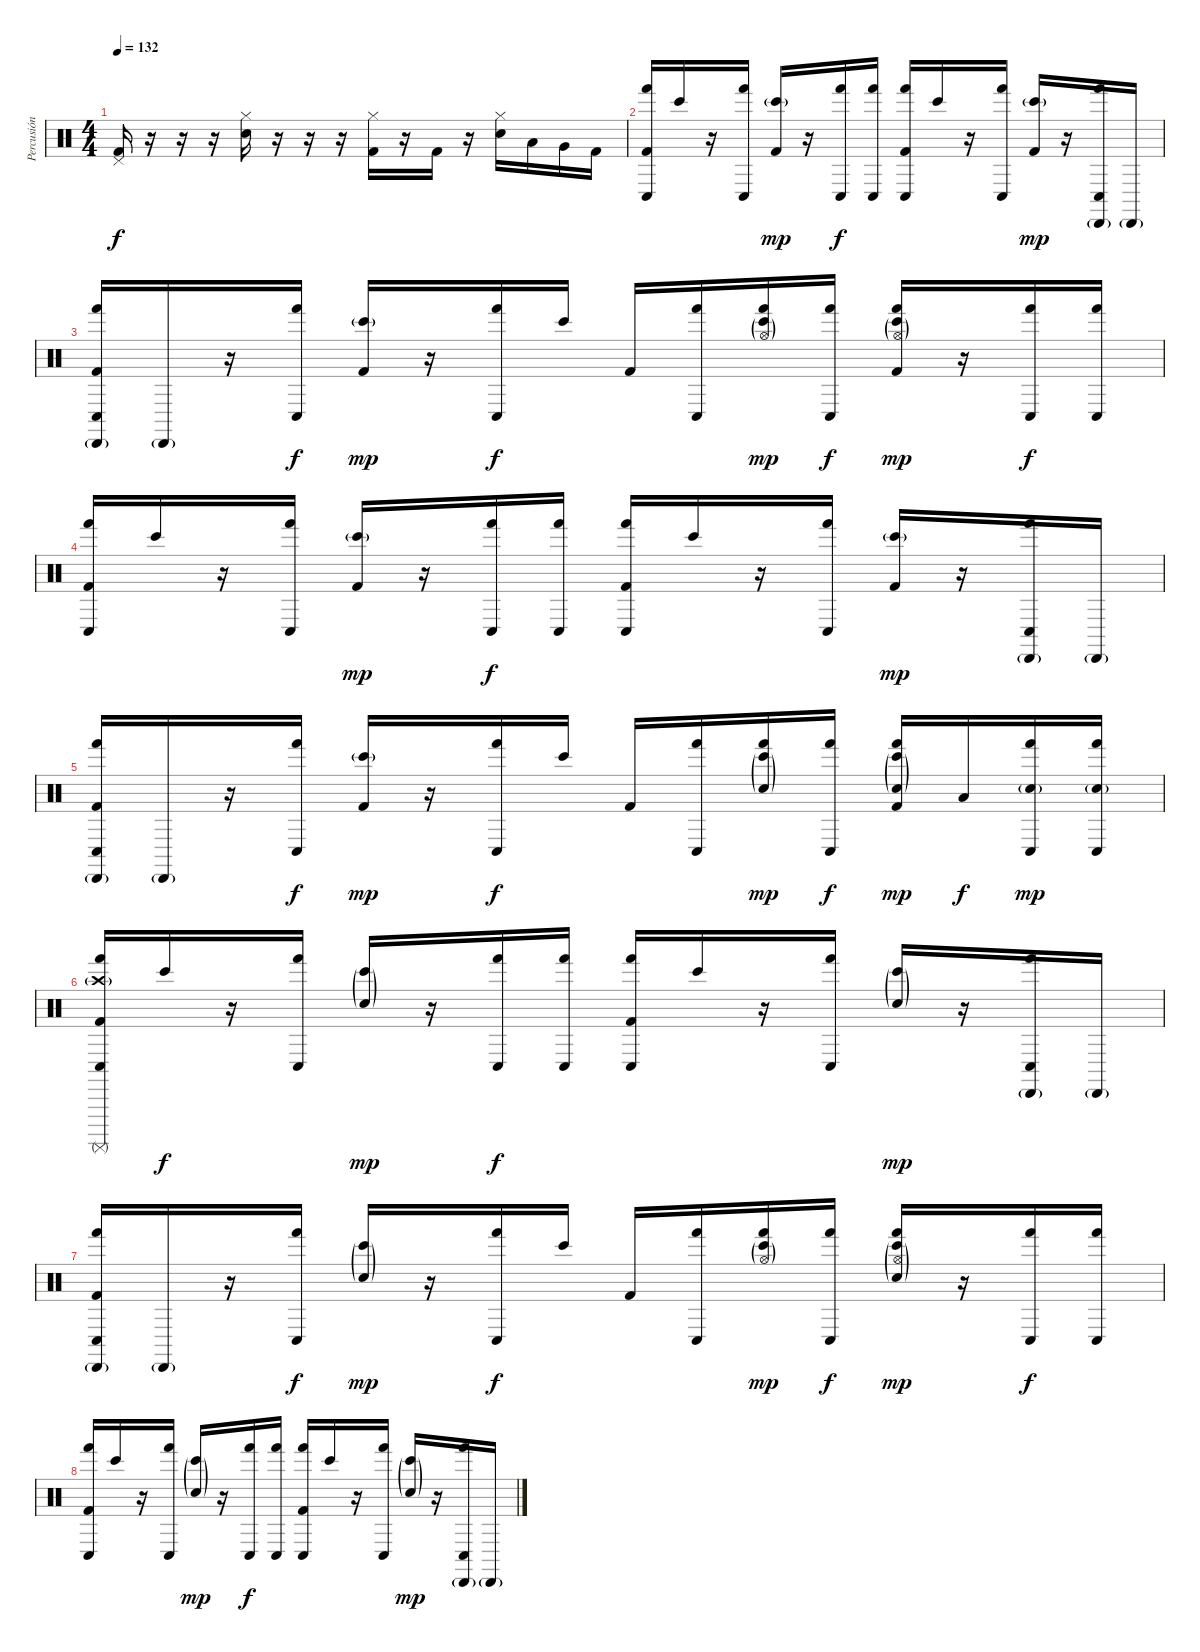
\track ("Percusión" "Percusión") {instrument percussion}
\staff {score}
\articulation defaults
\ts (4 4)
\tempo 132
\clef neutral
\ks c
("Pedal Hi-Hat (hit)" "Kick (hit) 2").16{dy f} r.16 r.16 r.16 ("Hi-Hat (closed)" "Electric Snare (hit)").16 r.16 r.16 r.16 ("Hi-Hat (closed)" "Kick (hit) 2").16 r.16 "Kick (hit) 2".16 r.16 ("Hi-Hat (closed)" "Electric Snare (hit)").16 "Low Tom (hit)".16 "Very Low Tom (hit)".16 "Kick (hit) 2".16 |
("Conga low (hit)" "Hand (hit)" "Kick (hit) 2").16 "Bongo High (hit)".16 r.16 ("Conga low (hit)" "Hand (hit)").16 ("Kick (hit) 2" "Bongo High (hit)"{g}).16{dy mp} r.16 ("Conga low (hit)" "Hand (hit)").16{dy f} ("Conga low (hit)" "Hand (hit)").16 ("Conga low (hit)" "Hand (hit)" "Kick (hit) 2").16 "Bongo High (hit)".16 r.16 ("Conga low (hit)" "Hand (hit)").16 ("Kick (hit) 2" "Bongo High (hit)"{g}).16{dy mp} r.16 ("Cabasa (hit)"{g} "Conga low (hit)" "Hand (hit)").16 "Cabasa (hit)"{g}.16 |
("Cabasa (hit)"{g} "Conga low (hit)" "Hand (hit)" "Kick (hit) 2").16 "Cabasa (hit)"{g}.16 r.16 ("Conga low (hit)" "Hand (hit)").16{dy f} ("Kick (hit) 2" "Bongo High (hit)"{g}).16{dy mp} r.16 ("Conga low (hit)" "Hand (hit)").16{dy f} "Bongo High (hit)".16 "Kick (hit) 2".16 ("Conga low (hit)" "Hand (hit)").16 ("Hi-Hat (open)"{g} "Hand (hit)" "Bongo High (hit)"{g}).16{dy mp} ("Conga low (hit)" "Hand (hit)").16{dy f} ("Hi-Hat (open)"{g} "Hand (hit)" "Kick (hit) 2" "Bongo High (hit)"{g}).16{dy mp} r.16 ("Conga low (hit)" "Hand (hit)").16{dy f} ("Conga low (hit)" "Hand (hit)").16 |
("Conga low (hit)" "Hand (hit)" "Kick (hit) 2").16 "Bongo High (hit)".16 r.16 ("Conga low (hit)" "Hand (hit)").16 ("Kick (hit) 2" "Bongo High (hit)"{g}).16{dy mp} r.16 ("Conga low (hit)" "Hand (hit)").16{dy f} ("Conga low (hit)" "Hand (hit)").16 ("Conga low (hit)" "Hand (hit)" "Kick (hit) 2").16 "Bongo High (hit)".16 r.16 ("Conga low (hit)" "Hand (hit)").16 ("Kick (hit) 2" "Bongo High (hit)"{g}).16{dy mp} r.16 ("Cabasa (hit)"{g} "Conga low (hit)" "Hand (hit)").16 "Cabasa (hit)"{g}.16 |
("Cabasa (hit)"{g} "Conga low (hit)" "Hand (hit)" "Kick (hit) 2").16 "Cabasa (hit)"{g}.16 r.16 ("Conga low (hit)" "Hand (hit)").16{dy f} ("Kick (hit) 2" "Bongo High (hit)"{g}).16{dy mp} r.16 ("Conga low (hit)" "Hand (hit)").16{dy f} "Bongo High (hit)".16 "Kick (hit) 2".16 ("Conga low (hit)" "Hand (hit)").16 ("Hand (hit)" "Bongo High (hit)"{g} "Snare (hit) 2"{g}).16{dy mp} ("Conga low (hit)" "Hand (hit)").16{dy f} ("Hand (hit)" "Kick (hit) 2" "Bongo High (hit)"{g} "Snare (hit) 2"{g}).16{dy mp} "Low Tom (hit)".16{dy f} ("Conga low (hit)" "Hand (hit)" "Snare (hit) 2"{g}).16{dy mp} ("Conga low (hit)" "Hand (hit)" "Snare (hit) 2"{g}).16 |
("Crash high (hit)"{g} "Conga low (hit)" "Hand (hit)" "Kick (hit) 2" "Surdo (mute)").16 "Bongo High (hit)".16{dy f} r.16 ("Conga low (hit)" "Hand (hit)").16 ("Snare (hit) 2"{g} "Bongo High (hit)"{g}).16{dy mp} r.16 ("Conga low (hit)" "Hand (hit)").16{dy f} ("Conga low (hit)" "Hand (hit)").16 ("Conga low (hit)" "Hand (hit)" "Kick (hit) 2").16 "Bongo High (hit)".16 r.16 ("Conga low (hit)" "Hand (hit)").16 ("Snare (hit) 2"{g} "Bongo High (hit)"{g}).16{dy mp} r.16 ("Cabasa (hit)"{g} "Conga low (hit)" "Hand (hit)").16 "Cabasa (hit)"{g}.16 |
("Cabasa (hit)"{g} "Conga low (hit)" "Hand (hit)" "Kick (hit) 2").16 "Cabasa (hit)"{g}.16 r.16 ("Conga low (hit)" "Hand (hit)").16{dy f} ("Snare (hit) 2"{g} "Bongo High (hit)"{g}).16{dy mp} r.16 ("Conga low (hit)" "Hand (hit)").16{dy f} "Bongo High (hit)".16 "Kick (hit) 2".16 ("Conga low (hit)" "Hand (hit)").16 ("Hi-Hat (open)"{g} "Hand (hit)" "Bongo High (hit)"{g}).16{dy mp} ("Conga low (hit)" "Hand (hit)").16{dy f} ("Hi-Hat (open)"{g} "Hand (hit)" "Bongo High (hit)"{g} "Snare (hit) 2"{g}).16{dy mp} r.16 ("Conga low (hit)" "Hand (hit)").16{dy f} ("Conga low (hit)" "Hand (hit)").16 |
("Conga low (hit)" "Hand (hit)" "Kick (hit) 2").16 "Bongo High (hit)".16 r.16 ("Conga low (hit)" "Hand (hit)").16 ("Snare (hit) 2"{g} "Bongo High (hit)"{g}).16{dy mp} r.16 ("Conga low (hit)" "Hand (hit)").16{dy f} ("Conga low (hit)" "Hand (hit)").16 ("Conga low (hit)" "Hand (hit)" "Kick (hit) 2").16 "Bongo High (hit)".16 r.16 ("Conga low (hit)" "Hand (hit)").16 ("Snare (hit) 2"{g} "Bongo High (hit)"{g}).16{dy mp} r.16 ("Cabasa (hit)"{g} "Conga low (hit)" "Hand (hit)").16 "Cabasa (hit)"{g}.16
